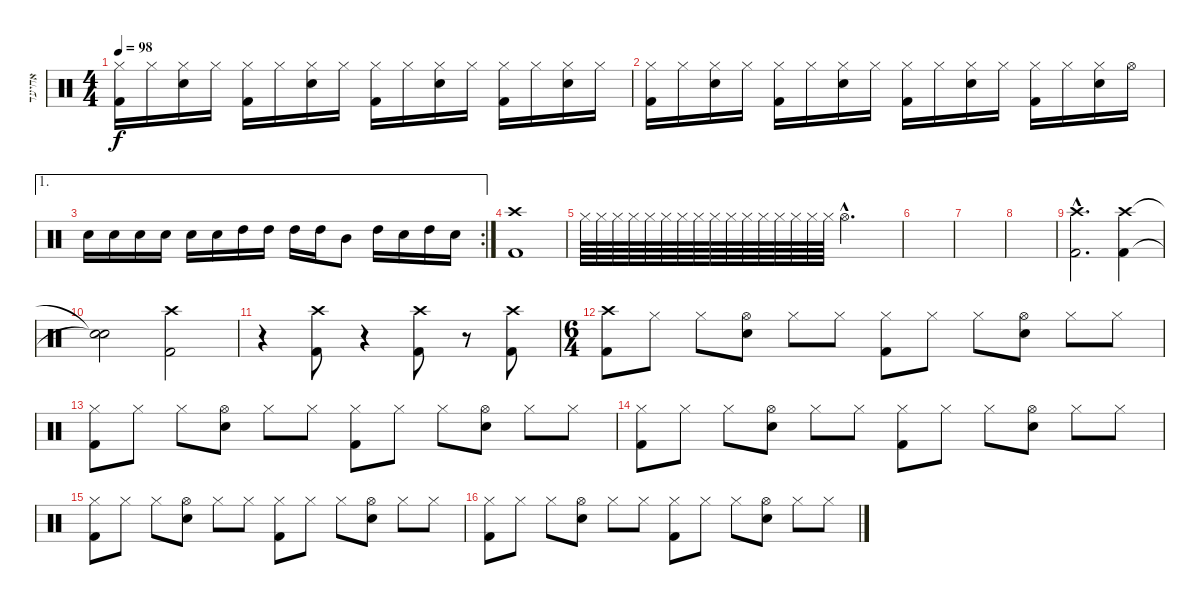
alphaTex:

\track ("אחיעד" "אחיעד") {instrument percussion}
\staff {score}
\articulation defaults
\ts (4 4)
\tempo 98
\clef neutral
\ks c
("Hi-Hat (closed)" "Kick (hit) 2").16{dy f} "Hi-Hat (closed)".16 ("Hi-Hat (closed)" "Snare (hit) 2").16 "Hi-Hat (closed)".16 ("Hi-Hat (closed)" "Kick (hit) 2").16 "Hi-Hat (closed)".16 ("Hi-Hat (closed)" "Snare (hit) 2").16 "Hi-Hat (closed)".16 ("Hi-Hat (closed)" "Kick (hit) 2").16 "Hi-Hat (closed)".16 ("Hi-Hat (closed)" "Snare (hit) 2").16 "Hi-Hat (closed)".16 ("Hi-Hat (closed)" "Kick (hit) 2").16 "Hi-Hat (closed)".16 ("Hi-Hat (closed)" "Snare (hit) 2").16 "Hi-Hat (closed)".16 |
("Hi-Hat (closed)" "Kick (hit) 2").16 "Hi-Hat (closed)".16 ("Hi-Hat (closed)" "Snare (hit) 2").16 "Hi-Hat (closed)".16 ("Hi-Hat (closed)" "Kick (hit) 2").16 "Hi-Hat (closed)".16 ("Hi-Hat (closed)" "Snare (hit) 2").16 "Hi-Hat (closed)".16 ("Hi-Hat (closed)" "Kick (hit) 2").16 "Hi-Hat (closed)".16 ("Hi-Hat (closed)" "Snare (hit) 2").16 "Hi-Hat (closed)".16 ("Hi-Hat (closed)" "Kick (hit) 2").16 "Hi-Hat (closed)".16 ("Hi-Hat (closed)" "Snare (hit) 2").16 "Hi-Hat (open)".16 |
\ae 1
\rc 2 "Snare (hit) 2".16 "Snare (hit) 2".16 "Snare (hit) 2".16 "Snare (hit) 2".16 "Snare (hit) 2".16 "Snare (hit) 2".16 "High Tom (hit)".16 "High Tom (hit)".16 "High Tom (hit)".16 "High Tom (hit)".16 "Mid Tom (hit)".8 "High Tom (hit)".16 "Snare (hit) 2".16 "High Tom (hit)".16 "Snare (hit) 2".16
|
("Crash high (hit)" "Kick (hit) 2").1 |
"Hi-Hat (closed)".64 "Hi-Hat (closed)".64 "Hi-Hat (closed)".64 "Hi-Hat (closed)".64 "Hi-Hat (closed)".64 "Hi-Hat (closed)".64 "Hi-Hat (closed)".64 "Hi-Hat (closed)".64 "Hi-Hat (closed)".64 "Hi-Hat (closed)".64 "Hi-Hat (closed)".64 "Hi-Hat (closed)".64 "Hi-Hat (closed)".64 "Hi-Hat (closed)".64 "Hi-Hat (closed)".64 "Hi-Hat (closed)".64 "Hi-Hat (open)"{hac}.2{d} |
|
|
|
("Crash high (hit)"{hac} "Kick (hit) 2"{hac}).2{d} ("Crash high (hit)" "Kick (hit) 2").4 |
("Snare (hit)"{t} "Snare (hit)"{t}).2 ("Crash high (hit)" "Kick (hit) 2").2 |
r.4 ("Crash high (hit)" "Kick (hit) 2").8 r.4 ("Crash high (hit)" "Kick (hit) 2").8 r.8 ("Crash high (hit)" "Kick (hit) 2").8 |
\ts (6 4)
("Crash high (hit)" "Kick (hit) 2").8 "Hi-Hat (closed)".8 "Hi-Hat (closed)".8 ("Hi-Hat (open)" "Snare (hit) 2").8 "Hi-Hat (closed)".8 "Hi-Hat (closed)".8 ("Hi-Hat (closed)" "Kick (hit) 2").8 "Hi-Hat (closed)".8 "Hi-Hat (closed)".8 ("Hi-Hat (open)" "Snare (hit) 2").8 "Hi-Hat (closed)".8 "Hi-Hat (closed)".8 |
("Hi-Hat (closed)" "Kick (hit) 2").8 "Hi-Hat (closed)".8 "Hi-Hat (closed)".8 ("Hi-Hat (open)" "Snare (hit) 2").8 "Hi-Hat (closed)".8 "Hi-Hat (closed)".8 ("Hi-Hat (closed)" "Kick (hit) 2").8 "Hi-Hat (closed)".8 "Hi-Hat (closed)".8 ("Hi-Hat (open)" "Snare (hit) 2").8 "Hi-Hat (closed)".8 "Hi-Hat (closed)".8 |
("Hi-Hat (closed)" "Kick (hit) 2").8 "Hi-Hat (closed)".8 "Hi-Hat (closed)".8 ("Hi-Hat (open)" "Snare (hit) 2").8 "Hi-Hat (closed)".8 "Hi-Hat (closed)".8 ("Hi-Hat (closed)" "Kick (hit) 2").8 "Hi-Hat (closed)".8 "Hi-Hat (closed)".8 ("Hi-Hat (open)" "Snare (hit) 2").8 "Hi-Hat (closed)".8 "Hi-Hat (closed)".8 |
("Hi-Hat (closed)" "Kick (hit) 2").8 "Hi-Hat (closed)".8 "Hi-Hat (closed)".8 ("Hi-Hat (open)" "Snare (hit) 2").8 "Hi-Hat (closed)".8 "Hi-Hat (closed)".8 ("Hi-Hat (closed)" "Kick (hit) 2").8 "Hi-Hat (closed)".8 "Hi-Hat (closed)".8 ("Hi-Hat (open)" "Snare (hit) 2").8 "Hi-Hat (closed)".8 "Hi-Hat (closed)".8 |
("Hi-Hat (closed)" "Kick (hit) 2").8 "Hi-Hat (closed)".8 "Hi-Hat (closed)".8 ("Hi-Hat (open)" "Snare (hit) 2").8 "Hi-Hat (closed)".8 "Hi-Hat (closed)".8 ("Hi-Hat (closed)" "Kick (hit) 2").8 "Hi-Hat (closed)".8 "Hi-Hat (closed)".8 ("Hi-Hat (open)" "Snare (hit) 2").8 "Hi-Hat (closed)".8 "Hi-Hat (closed)".8
